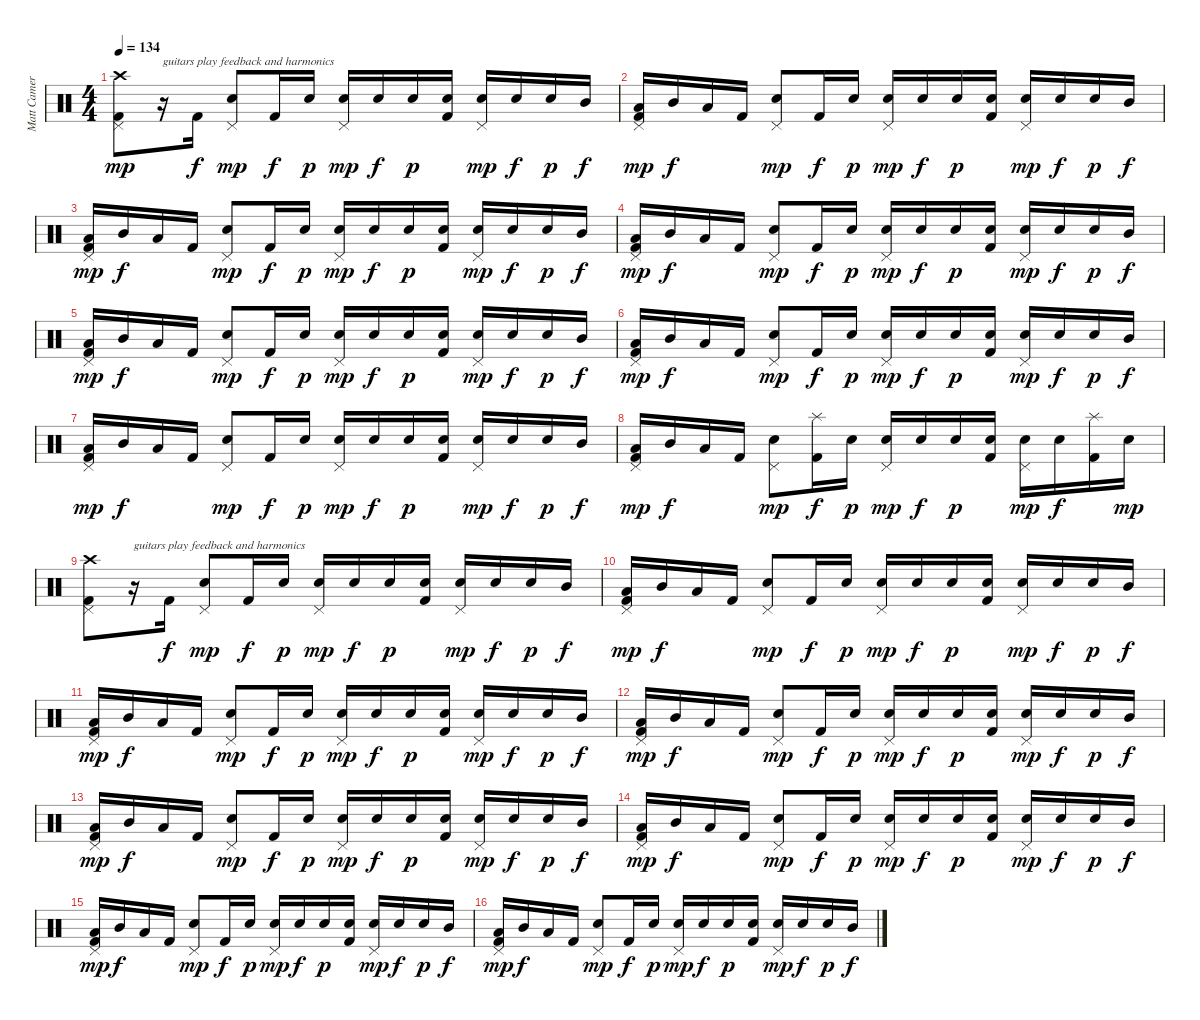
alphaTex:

\track ("Matt Cameron" "Matt Camer") {instrument percussion}
\staff {score}
\articulation defaults
\ts (4 4)
\tempo 134
\clef neutral
\ks c
("Crash high (hit)" "Pedal Hi-Hat (hit)" "Kick (hit) 2").8{dy mp} r.16{txt "guitars play feedback and harmonics"} "Kick (hit) 2".16{dy f} ("Electric Snare (hit)" "Pedal Hi-Hat (hit)").8{dy mp} "Kick (hit) 2".16{dy f} "Electric Snare (hit)".16{dy p} ("Electric Snare (hit)" "Pedal Hi-Hat (hit)").16{dy mp} "Electric Snare (hit)".16{dy f} "Electric Snare (hit)".16{dy p} ("Electric Snare (hit)" "Kick (hit) 2").16 ("Electric Snare (hit)" "Pedal Hi-Hat (hit)").16{dy mp} "Electric Snare (hit)".16{dy f} "Electric Snare (hit)".16{dy p} "Mid Tom (hit)".16{dy f} |
("Low Tom (hit)" "Pedal Hi-Hat (hit)" "Kick (hit) 2").16{dy mp} "Mid Tom (hit)".16{dy f} "Low Tom (hit)".16 "Kick (hit) 2".16 ("Electric Snare (hit)" "Pedal Hi-Hat (hit)").8{dy mp} "Kick (hit) 2".16{dy f} "Electric Snare (hit)".16{dy p} ("Electric Snare (hit)" "Pedal Hi-Hat (hit)").16{dy mp} "Electric Snare (hit)".16{dy f} "Electric Snare (hit)".16{dy p} ("Electric Snare (hit)" "Kick (hit) 2").16 ("Electric Snare (hit)" "Pedal Hi-Hat (hit)").16{dy mp} "Electric Snare (hit)".16{dy f} "Electric Snare (hit)".16{dy p} "Mid Tom (hit)".16{dy f} |
("Low Tom (hit)" "Pedal Hi-Hat (hit)" "Kick (hit) 2").16{dy mp} "Mid Tom (hit)".16{dy f} "Low Tom (hit)".16 "Kick (hit) 2".16 ("Electric Snare (hit)" "Pedal Hi-Hat (hit)").8{dy mp} "Kick (hit) 2".16{dy f} "Electric Snare (hit)".16{dy p} ("Electric Snare (hit)" "Pedal Hi-Hat (hit)").16{dy mp} "Electric Snare (hit)".16{dy f} "Electric Snare (hit)".16{dy p} ("Electric Snare (hit)" "Kick (hit) 2").16 ("Electric Snare (hit)" "Pedal Hi-Hat (hit)").16{dy mp} "Electric Snare (hit)".16{dy f} "Electric Snare (hit)".16{dy p} "Mid Tom (hit)".16{dy f} |
("Low Tom (hit)" "Pedal Hi-Hat (hit)" "Kick (hit) 2").16{dy mp} "Mid Tom (hit)".16{dy f} "Low Tom (hit)".16 "Kick (hit) 2".16 ("Electric Snare (hit)" "Pedal Hi-Hat (hit)").8{dy mp} "Kick (hit) 2".16{dy f} "Electric Snare (hit)".16{dy p} ("Electric Snare (hit)" "Pedal Hi-Hat (hit)").16{dy mp} "Electric Snare (hit)".16{dy f} "Electric Snare (hit)".16{dy p} ("Electric Snare (hit)" "Kick (hit) 2").16 ("Electric Snare (hit)" "Pedal Hi-Hat (hit)").16{dy mp} "Electric Snare (hit)".16{dy f} "Electric Snare (hit)".16{dy p} "Mid Tom (hit)".16{dy f} |
("Low Tom (hit)" "Pedal Hi-Hat (hit)" "Kick (hit) 2").16{dy mp} "Mid Tom (hit)".16{dy f} "Low Tom (hit)".16 "Kick (hit) 2".16 ("Electric Snare (hit)" "Pedal Hi-Hat (hit)").8{dy mp} "Kick (hit) 2".16{dy f} "Electric Snare (hit)".16{dy p} ("Electric Snare (hit)" "Pedal Hi-Hat (hit)").16{dy mp} "Electric Snare (hit)".16{dy f} "Electric Snare (hit)".16{dy p} ("Electric Snare (hit)" "Kick (hit) 2").16 ("Electric Snare (hit)" "Pedal Hi-Hat (hit)").16{dy mp} "Electric Snare (hit)".16{dy f} "Electric Snare (hit)".16{dy p} "Mid Tom (hit)".16{dy f} |
("Low Tom (hit)" "Pedal Hi-Hat (hit)" "Kick (hit) 2").16{dy mp} "Mid Tom (hit)".16{dy f} "Low Tom (hit)".16 "Kick (hit) 2".16 ("Electric Snare (hit)" "Pedal Hi-Hat (hit)").8{dy mp} "Kick (hit) 2".16{dy f} "Electric Snare (hit)".16{dy p} ("Electric Snare (hit)" "Pedal Hi-Hat (hit)").16{dy mp} "Electric Snare (hit)".16{dy f} "Electric Snare (hit)".16{dy p} ("Electric Snare (hit)" "Kick (hit) 2").16 ("Electric Snare (hit)" "Pedal Hi-Hat (hit)").16{dy mp} "Electric Snare (hit)".16{dy f} "Electric Snare (hit)".16{dy p} "Mid Tom (hit)".16{dy f} |
("Low Tom (hit)" "Pedal Hi-Hat (hit)" "Kick (hit) 2").16{dy mp} "Mid Tom (hit)".16{dy f} "Low Tom (hit)".16 "Kick (hit) 2".16 ("Electric Snare (hit)" "Pedal Hi-Hat (hit)").8{dy mp} "Kick (hit) 2".16{dy f} "Electric Snare (hit)".16{dy p} ("Electric Snare (hit)" "Pedal Hi-Hat (hit)").16{dy mp} "Electric Snare (hit)".16{dy f} "Electric Snare (hit)".16{dy p} ("Electric Snare (hit)" "Kick (hit) 2").16 ("Electric Snare (hit)" "Pedal Hi-Hat (hit)").16{dy mp} "Electric Snare (hit)".16{dy f} "Electric Snare (hit)".16{dy p} "Mid Tom (hit)".16{dy f} |
("Low Tom (hit)" "Pedal Hi-Hat (hit)" "Kick (hit) 2").16{dy mp} "Mid Tom (hit)".16{dy f} "Low Tom (hit)".16 "Kick (hit) 2".16 ("Electric Snare (hit)" "Pedal Hi-Hat (hit)").8{dy mp} ("Splash (hit)" "Kick (hit) 2").16{dy f} "Electric Snare (hit)".16{dy p} ("Electric Snare (hit)" "Pedal Hi-Hat (hit)").16{dy mp} "Electric Snare (hit)".16{dy f} "Electric Snare (hit)".16{dy p} ("Electric Snare (hit)" "Kick (hit) 2").16 ("Electric Snare (hit)" "Pedal Hi-Hat (hit)").16{dy mp} "Electric Snare (hit)".16{dy f} ("Splash (hit)" "Kick (hit) 2").16 "Electric Snare (hit)".16{dy mp} |
("Crash high (hit)" "Pedal Hi-Hat (hit)" "Kick (hit) 2").8 r.16{txt "guitars play feedback and harmonics"} "Kick (hit) 2".16{dy f} ("Electric Snare (hit)" "Pedal Hi-Hat (hit)").8{dy mp} "Kick (hit) 2".16{dy f} "Electric Snare (hit)".16{dy p} ("Electric Snare (hit)" "Pedal Hi-Hat (hit)").16{dy mp} "Electric Snare (hit)".16{dy f} "Electric Snare (hit)".16{dy p} ("Electric Snare (hit)" "Kick (hit) 2").16 ("Electric Snare (hit)" "Pedal Hi-Hat (hit)").16{dy mp} "Electric Snare (hit)".16{dy f} "Electric Snare (hit)".16{dy p} "Mid Tom (hit)".16{dy f} |
("Low Tom (hit)" "Pedal Hi-Hat (hit)" "Kick (hit) 2").16{dy mp} "Mid Tom (hit)".16{dy f} "Low Tom (hit)".16 "Kick (hit) 2".16 ("Electric Snare (hit)" "Pedal Hi-Hat (hit)").8{dy mp} "Kick (hit) 2".16{dy f} "Electric Snare (hit)".16{dy p} ("Electric Snare (hit)" "Pedal Hi-Hat (hit)").16{dy mp} "Electric Snare (hit)".16{dy f} "Electric Snare (hit)".16{dy p} ("Electric Snare (hit)" "Kick (hit) 2").16 ("Electric Snare (hit)" "Pedal Hi-Hat (hit)").16{dy mp} "Electric Snare (hit)".16{dy f} "Electric Snare (hit)".16{dy p} "Mid Tom (hit)".16{dy f} |
("Low Tom (hit)" "Pedal Hi-Hat (hit)" "Kick (hit) 2").16{dy mp} "Mid Tom (hit)".16{dy f} "Low Tom (hit)".16 "Kick (hit) 2".16 ("Electric Snare (hit)" "Pedal Hi-Hat (hit)").8{dy mp} "Kick (hit) 2".16{dy f} "Electric Snare (hit)".16{dy p} ("Electric Snare (hit)" "Pedal Hi-Hat (hit)").16{dy mp} "Electric Snare (hit)".16{dy f} "Electric Snare (hit)".16{dy p} ("Electric Snare (hit)" "Kick (hit) 2").16 ("Electric Snare (hit)" "Pedal Hi-Hat (hit)").16{dy mp} "Electric Snare (hit)".16{dy f} "Electric Snare (hit)".16{dy p} "Mid Tom (hit)".16{dy f} |
("Low Tom (hit)" "Pedal Hi-Hat (hit)" "Kick (hit) 2").16{dy mp} "Mid Tom (hit)".16{dy f} "Low Tom (hit)".16 "Kick (hit) 2".16 ("Electric Snare (hit)" "Pedal Hi-Hat (hit)").8{dy mp} "Kick (hit) 2".16{dy f} "Electric Snare (hit)".16{dy p} ("Electric Snare (hit)" "Pedal Hi-Hat (hit)").16{dy mp} "Electric Snare (hit)".16{dy f} "Electric Snare (hit)".16{dy p} ("Electric Snare (hit)" "Kick (hit) 2").16 ("Electric Snare (hit)" "Pedal Hi-Hat (hit)").16{dy mp} "Electric Snare (hit)".16{dy f} "Electric Snare (hit)".16{dy p} "Mid Tom (hit)".16{dy f} |
("Low Tom (hit)" "Pedal Hi-Hat (hit)" "Kick (hit) 2").16{dy mp} "Mid Tom (hit)".16{dy f} "Low Tom (hit)".16 "Kick (hit) 2".16 ("Electric Snare (hit)" "Pedal Hi-Hat (hit)").8{dy mp} "Kick (hit) 2".16{dy f} "Electric Snare (hit)".16{dy p} ("Electric Snare (hit)" "Pedal Hi-Hat (hit)").16{dy mp} "Electric Snare (hit)".16{dy f} "Electric Snare (hit)".16{dy p} ("Electric Snare (hit)" "Kick (hit) 2").16 ("Electric Snare (hit)" "Pedal Hi-Hat (hit)").16{dy mp} "Electric Snare (hit)".16{dy f} "Electric Snare (hit)".16{dy p} "Mid Tom (hit)".16{dy f} |
("Low Tom (hit)" "Pedal Hi-Hat (hit)" "Kick (hit) 2").16{dy mp} "Mid Tom (hit)".16{dy f} "Low Tom (hit)".16 "Kick (hit) 2".16 ("Electric Snare (hit)" "Pedal Hi-Hat (hit)").8{dy mp} "Kick (hit) 2".16{dy f} "Electric Snare (hit)".16{dy p} ("Electric Snare (hit)" "Pedal Hi-Hat (hit)").16{dy mp} "Electric Snare (hit)".16{dy f} "Electric Snare (hit)".16{dy p} ("Electric Snare (hit)" "Kick (hit) 2").16 ("Electric Snare (hit)" "Pedal Hi-Hat (hit)").16{dy mp} "Electric Snare (hit)".16{dy f} "Electric Snare (hit)".16{dy p} "Mid Tom (hit)".16{dy f} |
("Low Tom (hit)" "Pedal Hi-Hat (hit)" "Kick (hit) 2").16{dy mp} "Mid Tom (hit)".16{dy f} "Low Tom (hit)".16 "Kick (hit) 2".16 ("Electric Snare (hit)" "Pedal Hi-Hat (hit)").8{dy mp} "Kick (hit) 2".16{dy f} "Electric Snare (hit)".16{dy p} ("Electric Snare (hit)" "Pedal Hi-Hat (hit)").16{dy mp} "Electric Snare (hit)".16{dy f} "Electric Snare (hit)".16{dy p} ("Electric Snare (hit)" "Kick (hit) 2").16 ("Electric Snare (hit)" "Pedal Hi-Hat (hit)").16{dy mp} "Electric Snare (hit)".16{dy f} "Electric Snare (hit)".16{dy p} "Mid Tom (hit)".16{dy f} |
("Low Tom (hit)" "Pedal Hi-Hat (hit)" "Kick (hit) 2").16{dy mp} "Mid Tom (hit)".16{dy f} "Low Tom (hit)".16 "Kick (hit) 2".16 ("Electric Snare (hit)" "Pedal Hi-Hat (hit)").8{dy mp} "Kick (hit) 2".16{dy f} "Electric Snare (hit)".16{dy p} ("Electric Snare (hit)" "Pedal Hi-Hat (hit)").16{dy mp} "Electric Snare (hit)".16{dy f} "Electric Snare (hit)".16{dy p} ("Electric Snare (hit)" "Kick (hit) 2").16 ("Electric Snare (hit)" "Pedal Hi-Hat (hit)").16{dy mp} "Electric Snare (hit)".16{dy f} "Electric Snare (hit)".16{dy p} "Mid Tom (hit)".16{dy f}
